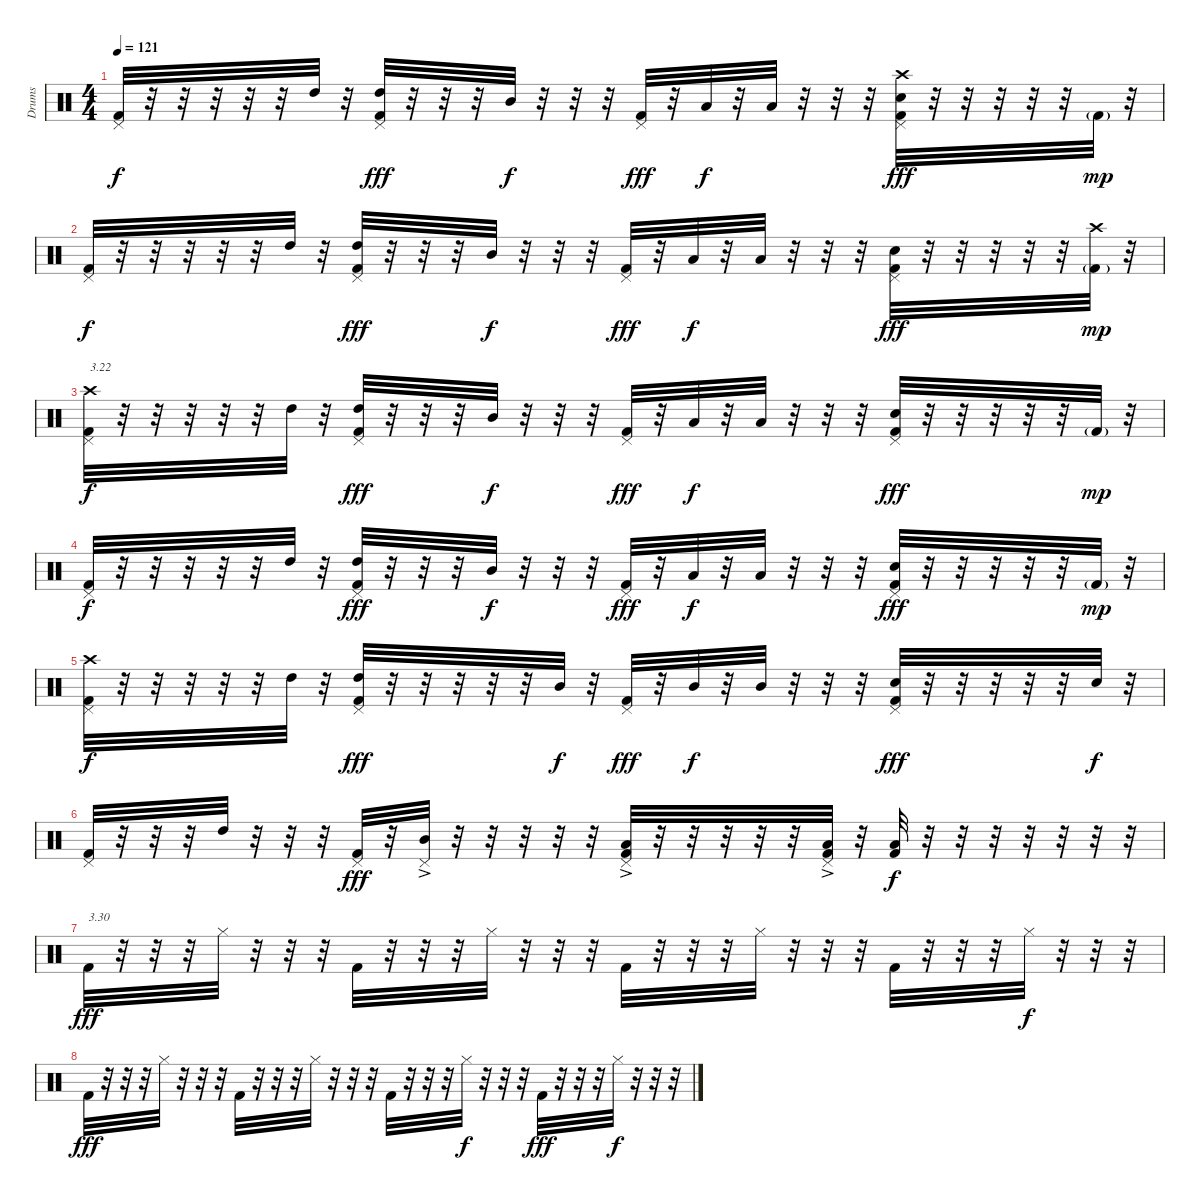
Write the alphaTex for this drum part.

\track ("Drums" "Drums") {instrument percussion}
\staff {score}
\articulation defaults
\ts (4 4)
\tempo 121
\clef neutral
\ks c
("Pedal Hi-Hat (hit)" "Kick (hit) 2").32{dy f} r.32 r.32 r.32 r.32 r.32 "High Tom (hit)".32 r.32 ("Pedal Hi-Hat (hit)" "Kick (hit) 2" "High Tom (hit)").32{dy fff} r.32 r.32 r.32 "Mid Tom (hit)".32{dy f} r.32 r.32 r.32 ("Pedal Hi-Hat (hit)" "Kick (hit) 2").32{dy fff} r.32 "Low Tom (hit)".32{dy f} r.32 "Low Tom (hit)".32 r.32 r.32 r.32 ("Pedal Hi-Hat (hit)" "Kick (hit) 2" "Snare (hit) 2" "Crash high (hit)").32{dy fff} r.32 r.32 r.32 r.32 r.32 "Kick (hit) 2"{g}.32{dy mp} r.32 |
("Pedal Hi-Hat (hit)" "Kick (hit) 2").32{dy f} r.32 r.32 r.32 r.32 r.32 "High Tom (hit)".32 r.32 ("Pedal Hi-Hat (hit)" "Kick (hit) 2" "High Tom (hit)").32{dy fff} r.32 r.32 r.32 "Mid Tom (hit)".32{dy f} r.32 r.32 r.32 ("Pedal Hi-Hat (hit)" "Kick (hit) 2").32{dy fff} r.32 "Low Tom (hit)".32{dy f} r.32 "Low Tom (hit)".32 r.32 r.32 r.32 ("Pedal Hi-Hat (hit)" "Kick (hit) 2" "Snare (hit) 2").32{dy fff} r.32 r.32 r.32 r.32 r.32 ("Kick (hit) 2"{g} "Crash high (hit)").32{dy mp} r.32 |
("Pedal Hi-Hat (hit)" "Kick (hit) 2" "Crash high (hit)").32{txt "3.22" dy f} r.32 r.32 r.32 r.32 r.32 "High Tom (hit)".32 r.32 ("Pedal Hi-Hat (hit)" "Kick (hit) 2" "High Tom (hit)").32{dy fff} r.32 r.32 r.32 "Mid Tom (hit)".32{dy f} r.32 r.32 r.32 ("Pedal Hi-Hat (hit)" "Kick (hit) 2").32{dy fff} r.32 "Low Tom (hit)".32{dy f} r.32 "Low Tom (hit)".32 r.32 r.32 r.32 ("Pedal Hi-Hat (hit)" "Kick (hit) 2" "Snare (hit) 2").32{dy fff} r.32 r.32 r.32 r.32 r.32 "Kick (hit) 2"{g}.32{dy mp} r.32 |
("Pedal Hi-Hat (hit)" "Kick (hit) 2").32{dy f} r.32 r.32 r.32 r.32 r.32 "High Tom (hit)".32 r.32 ("Pedal Hi-Hat (hit)" "Kick (hit) 2" "High Tom (hit)").32{dy fff} r.32 r.32 r.32 "Mid Tom (hit)".32{dy f} r.32 r.32 r.32 ("Pedal Hi-Hat (hit)" "Kick (hit) 2").32{dy fff} r.32 "Low Tom (hit)".32{dy f} r.32 "Low Tom (hit)".32 r.32 r.32 r.32 ("Pedal Hi-Hat (hit)" "Kick (hit) 2" "Snare (hit) 2").32{dy fff} r.32 r.32 r.32 r.32 r.32 "Kick (hit) 2"{g}.32{dy mp} r.32 |
("Pedal Hi-Hat (hit)" "Kick (hit) 2" "Crash high (hit)").32{dy f} r.32 r.32 r.32 r.32 r.32 "High Tom (hit)".32 r.32 ("Pedal Hi-Hat (hit)" "Kick (hit) 2" "High Tom (hit)").32{dy fff} r.32 r.32 r.32 r.32 r.32 "Mid Tom (hit)".32{dy f} r.32 ("Pedal Hi-Hat (hit)" "Kick (hit) 2").32{dy fff} r.32 "Mid Tom (hit)".32{dy f} r.32 "Mid Tom (hit)".32 r.32 r.32 r.32 ("Pedal Hi-Hat (hit)" "Kick (hit) 2" "Electric Snare (hit)").32{dy fff} r.32 r.32 r.32 r.32 r.32 "Electric Snare (hit)".32{dy f} r.32 |
("Pedal Hi-Hat (hit)" "Kick (hit) 2").32 r.32 r.32 r.32 "High Tom (hit)".32 r.32 r.32 r.32 ("Pedal Hi-Hat (hit)" "Kick (hit) 2").32{dy fff} r.32 ("Pedal Hi-Hat (hit)" "Mid Tom (hit)"{ac}).32 r.32 r.32 r.32 r.32 r.32 ("Pedal Hi-Hat (hit)" "Kick (hit) 2" "Low Tom (hit)"{ac}).32 r.32 r.32 r.32 r.32 r.32 ("Pedal Hi-Hat (hit)" "Kick (hit) 2" "Low Tom (hit)"{ac}).32 r.32 ("Kick (hit) 2" "Low Tom (hit)").32{dy f} r.32 r.32 r.32 r.32 r.32 r.32 r.32 |
"Kick (hit) 2".32{txt "3.30" dy fff} r.32 r.32 r.32 "Hi-Hat (closed)".32 r.32 r.32 r.32 "Kick (hit) 2".32 r.32 r.32 r.32 "Hi-Hat (closed)".32 r.32 r.32 r.32 "Kick (hit) 2".32 r.32 r.32 r.32 "Hi-Hat (closed)".32 r.32 r.32 r.32 "Kick (hit) 2".32 r.32 r.32 r.32 "Hi-Hat (closed)".32{dy f} r.32 r.32 r.32 |
"Kick (hit) 2".32{dy fff} r.32 r.32 r.32 "Hi-Hat (closed)".32 r.32 r.32 r.32 "Kick (hit) 2".32 r.32 r.32 r.32 "Hi-Hat (closed)".32 r.32 r.32 r.32 "Kick (hit) 2".32 r.32 r.32 r.32 "Hi-Hat (closed)".32{dy f} r.32 r.32 r.32 "Kick (hit) 2".32{dy fff} r.32 r.32 r.32 "Hi-Hat (closed)".32{dy f} r.32 r.32 r.32
